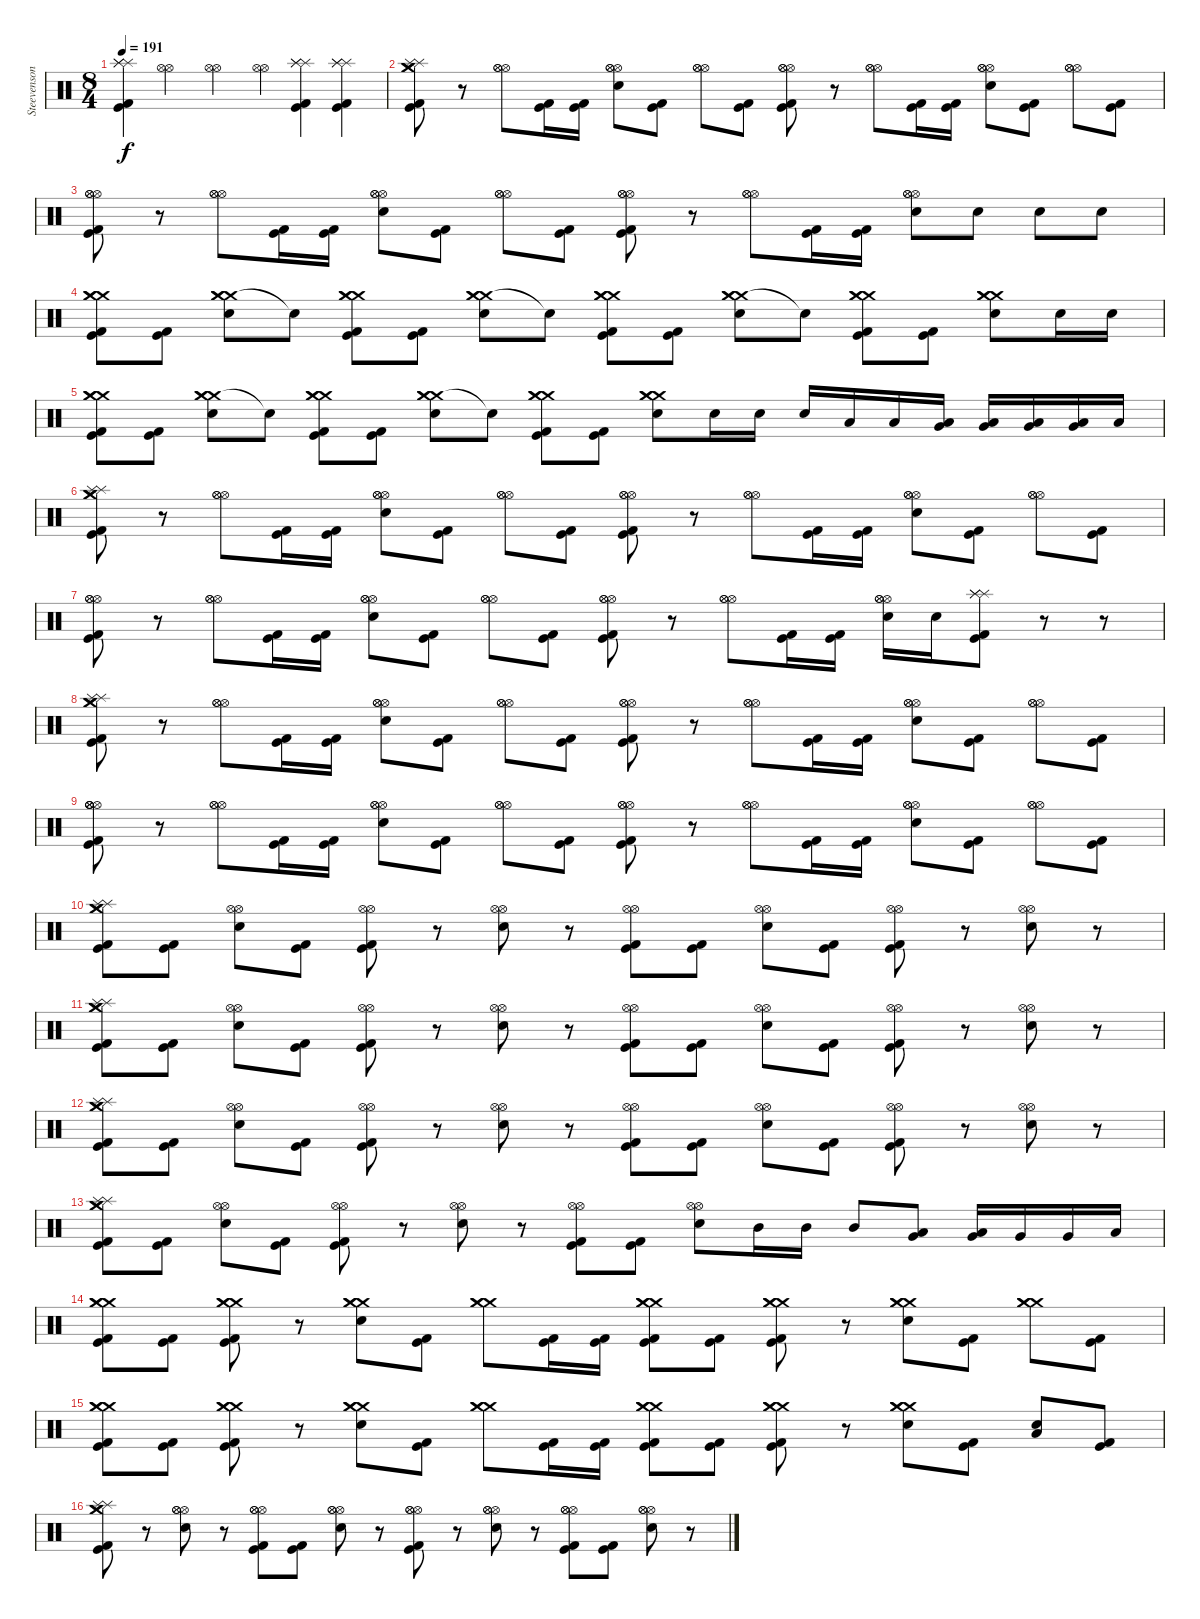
\track ("Steevenson" "Steevenson") {instrument percussion}
\staff {score}
\articulation defaults
\ts (8 4)
\tempo 191
\clef neutral
\ks c
("Splash (hit)" "Splash (hit)" "Splash (hit)" "Kick (hit)" "Kick (hit) 2").4{dy f} ("Hi-Hat (open)" "Hi-Hat (open)").2 ("Hi-Hat (open)" "Hi-Hat (open)").2 ("Hi-Hat (open)" "Hi-Hat (open)").4 ("Splash (hit)" "Splash (hit)" "Splash (hit)" "Kick (hit)" "Kick (hit) 2").4 ("Splash (hit)" "Splash (hit)" "Splash (hit)" "Kick (hit)" "Kick (hit) 2").4 |
("Crash medium (hit)" "Crash medium (hit)" "Splash (hit)" "Splash (hit)" "Kick (hit)" "Kick (hit) 2").8 r.8 ("Hi-Hat (open)" "Hi-Hat (open)" "Hi-Hat (open)").8 ("Kick (hit)" "Kick (hit) 2").16 ("Kick (hit)" "Kick (hit) 2").16 ("Hi-Hat (open)" "Hi-Hat (open)" "Hi-Hat (open)" "Snare (hit) 2").8 ("Kick (hit)" "Kick (hit) 2").8 ("Hi-Hat (open)" "Hi-Hat (open)" "Hi-Hat (open)").8 ("Kick (hit)" "Kick (hit) 2").8 ("Hi-Hat (open)" "Hi-Hat (open)" "Hi-Hat (open)" "Kick (hit)" "Kick (hit) 2").8 r.8 ("Hi-Hat (open)" "Hi-Hat (open)" "Hi-Hat (open)").8 ("Kick (hit)" "Kick (hit) 2").16 ("Kick (hit)" "Kick (hit) 2").16 ("Hi-Hat (open)" "Hi-Hat (open)" "Hi-Hat (open)" "Snare (hit) 2").8 ("Kick (hit)" "Kick (hit) 2").8 ("Hi-Hat (open)" "Hi-Hat (open)" "Hi-Hat (open)").8 ("Kick (hit)" "Kick (hit) 2").8 |
("Hi-Hat (open)" "Hi-Hat (open)" "Hi-Hat (open)" "Kick (hit)" "Kick (hit) 2").8 r.8 ("Hi-Hat (open)" "Hi-Hat (open)" "Hi-Hat (open)").8 ("Kick (hit)" "Kick (hit) 2").16 ("Kick (hit)" "Kick (hit) 2").16 ("Hi-Hat (open)" "Hi-Hat (open)" "Hi-Hat (open)" "Snare (hit) 2").8 ("Kick (hit)" "Kick (hit) 2").8 ("Hi-Hat (open)" "Hi-Hat (open)" "Hi-Hat (open)").8 ("Kick (hit)" "Kick (hit) 2").8 ("Hi-Hat (open)" "Hi-Hat (open)" "Hi-Hat (open)" "Kick (hit)" "Kick (hit) 2").8 r.8 ("Hi-Hat (open)" "Hi-Hat (open)" "Hi-Hat (open)").8 ("Kick (hit)" "Kick (hit) 2").16 ("Kick (hit)" "Kick (hit) 2").16 ("Hi-Hat (open)" "Hi-Hat (open)" "Hi-Hat (open)" "Snare (hit) 2").8 "Snare (hit) 2".8 "Snare (hit) 2".8 "Snare (hit) 2".8 |
("Crash medium (hit)" "Crash medium (hit)" "Crash medium (hit)" "Kick (hit)" "Kick (hit) 2").8 ("Kick (hit)" "Kick (hit) 2").8 ("Crash medium (hit)" "Crash medium (hit)" "Crash medium (hit)" "Snare (hit) 2").8 "Snare (hit)"{t}.8 ("Crash medium (hit)" "Crash medium (hit)" "Crash medium (hit)" "Kick (hit)" "Kick (hit) 2").8 ("Kick (hit)" "Kick (hit) 2").8 ("Crash medium (hit)" "Crash medium (hit)" "Crash medium (hit)" "Snare (hit) 2").8 "Snare (hit)"{t}.8 ("Crash medium (hit)" "Crash medium (hit)" "Crash medium (hit)" "Kick (hit)" "Kick (hit) 2").8 ("Kick (hit)" "Kick (hit) 2").8 ("Crash medium (hit)" "Crash medium (hit)" "Crash medium (hit)" "Snare (hit) 2").8 "Snare (hit)"{t}.8 ("Crash medium (hit)" "Crash medium (hit)" "Crash medium (hit)" "Kick (hit)" "Kick (hit) 2").8 ("Kick (hit)" "Kick (hit) 2").8 ("Crash medium (hit)" "Crash medium (hit)" "Crash medium (hit)" "Snare (hit) 2").8 "Snare (hit) 2".16 "Snare (hit) 2".16 |
("Crash medium (hit)" "Crash medium (hit)" "Crash medium (hit)" "Kick (hit)" "Kick (hit) 2").8 ("Kick (hit)" "Kick (hit) 2").8 ("Crash medium (hit)" "Crash medium (hit)" "Crash medium (hit)" "Snare (hit) 2").8 "Snare (hit)"{t}.8 ("Crash medium (hit)" "Crash medium (hit)" "Crash medium (hit)" "Kick (hit)" "Kick (hit) 2").8 ("Kick (hit)" "Kick (hit) 2").8 ("Crash medium (hit)" "Crash medium (hit)" "Crash medium (hit)" "Snare (hit) 2").8 "Snare (hit)"{t}.8 ("Crash medium (hit)" "Crash medium (hit)" "Crash medium (hit)" "Kick (hit)" "Kick (hit) 2").8 ("Kick (hit)" "Kick (hit) 2").8 ("Crash medium (hit)" "Crash medium (hit)" "Crash medium (hit)" "Snare (hit) 2").8 "Snare (hit) 2".16 "Snare (hit) 2".16 "Snare (hit) 2".16 "Low Tom (hit)".16 "Low Tom (hit)".16 ("Very Low Tom (hit)" "Low Tom (hit)").16 ("Very Low Tom (hit)" "Low Tom (hit)").16 ("Very Low Tom (hit)" "Low Floor Tom (hit)").16 ("Very Low Tom (hit)" "Low Floor Tom (hit)").16 "Low Floor Tom (hit)".16 |
("Crash medium (hit)" "Crash medium (hit)" "Splash (hit)" "Splash (hit)" "Kick (hit)" "Kick (hit) 2").8 r.8 ("Hi-Hat (open)" "Hi-Hat (open)" "Hi-Hat (open)").8 ("Kick (hit)" "Kick (hit) 2").16 ("Kick (hit)" "Kick (hit) 2").16 ("Hi-Hat (open)" "Hi-Hat (open)" "Hi-Hat (open)" "Snare (hit) 2").8 ("Kick (hit)" "Kick (hit) 2").8 ("Hi-Hat (open)" "Hi-Hat (open)" "Hi-Hat (open)").8 ("Kick (hit)" "Kick (hit) 2").8 ("Hi-Hat (open)" "Hi-Hat (open)" "Hi-Hat (open)" "Kick (hit)" "Kick (hit) 2").8 r.8 ("Hi-Hat (open)" "Hi-Hat (open)" "Hi-Hat (open)").8 ("Kick (hit)" "Kick (hit) 2").16 ("Kick (hit)" "Kick (hit) 2").16 ("Hi-Hat (open)" "Hi-Hat (open)" "Hi-Hat (open)" "Snare (hit) 2").8 ("Kick (hit)" "Kick (hit) 2").8 ("Hi-Hat (open)" "Hi-Hat (open)" "Hi-Hat (open)").8 ("Kick (hit)" "Kick (hit) 2").8 |
("Hi-Hat (open)" "Hi-Hat (open)" "Hi-Hat (open)" "Kick (hit)" "Kick (hit) 2").8 r.8 ("Hi-Hat (open)" "Hi-Hat (open)" "Hi-Hat (open)").8 ("Kick (hit)" "Kick (hit) 2").16 ("Kick (hit)" "Kick (hit) 2").16 ("Hi-Hat (open)" "Hi-Hat (open)" "Hi-Hat (open)" "Snare (hit) 2").8 ("Kick (hit)" "Kick (hit) 2").8 ("Hi-Hat (open)" "Hi-Hat (open)" "Hi-Hat (open)").8 ("Kick (hit)" "Kick (hit) 2").8 ("Hi-Hat (open)" "Hi-Hat (open)" "Hi-Hat (open)" "Kick (hit)" "Kick (hit) 2").8 r.8 ("Hi-Hat (open)" "Hi-Hat (open)" "Hi-Hat (open)").8 ("Kick (hit)" "Kick (hit) 2").16 ("Kick (hit)" "Kick (hit) 2").16 ("Hi-Hat (open)" "Hi-Hat (open)" "Hi-Hat (open)" "Snare (hit) 2").16 "Snare (hit) 2".16 ("Splash (hit)" "Splash (hit)" "Splash (hit)" "Kick (hit)" "Kick (hit) 2").8 r.8 r.8 |
("Crash medium (hit)" "Crash medium (hit)" "Splash (hit)" "Splash (hit)" "Kick (hit)" "Kick (hit) 2").8 r.8 ("Hi-Hat (open)" "Hi-Hat (open)" "Hi-Hat (open)").8 ("Kick (hit)" "Kick (hit) 2").16 ("Kick (hit)" "Kick (hit) 2").16 ("Hi-Hat (open)" "Hi-Hat (open)" "Hi-Hat (open)" "Snare (hit) 2").8 ("Kick (hit)" "Kick (hit) 2").8 ("Hi-Hat (open)" "Hi-Hat (open)" "Hi-Hat (open)").8 ("Kick (hit)" "Kick (hit) 2").8 ("Hi-Hat (open)" "Hi-Hat (open)" "Hi-Hat (open)" "Kick (hit)" "Kick (hit) 2").8 r.8 ("Hi-Hat (open)" "Hi-Hat (open)" "Hi-Hat (open)").8 ("Kick (hit)" "Kick (hit) 2").16 ("Kick (hit)" "Kick (hit) 2").16 ("Hi-Hat (open)" "Hi-Hat (open)" "Hi-Hat (open)" "Snare (hit) 2").8 ("Kick (hit)" "Kick (hit) 2").8 ("Hi-Hat (open)" "Hi-Hat (open)" "Hi-Hat (open)").8 ("Kick (hit)" "Kick (hit) 2").8 |
("Hi-Hat (open)" "Hi-Hat (open)" "Hi-Hat (open)" "Hi-Hat (open)" "Kick (hit)" "Kick (hit) 2").8 r.8 ("Hi-Hat (open)" "Hi-Hat (open)" "Hi-Hat (open)").8 ("Kick (hit)" "Kick (hit) 2").16 ("Kick (hit)" "Kick (hit) 2").16 ("Hi-Hat (open)" "Hi-Hat (open)" "Hi-Hat (open)" "Snare (hit) 2").8 ("Kick (hit)" "Kick (hit) 2").8 ("Hi-Hat (open)" "Hi-Hat (open)" "Hi-Hat (open)").8 ("Kick (hit)" "Kick (hit) 2").8 ("Hi-Hat (open)" "Hi-Hat (open)" "Hi-Hat (open)" "Kick (hit)" "Kick (hit) 2").8 r.8 ("Hi-Hat (open)" "Hi-Hat (open)" "Hi-Hat (open)").8 ("Kick (hit)" "Kick (hit) 2").16 ("Kick (hit)" "Kick (hit) 2").16 ("Hi-Hat (open)" "Hi-Hat (open)" "Hi-Hat (open)" "Snare (hit) 2").8 ("Kick (hit)" "Kick (hit) 2").8 ("Hi-Hat (open)" "Hi-Hat (open)" "Hi-Hat (open)").8 ("Kick (hit)" "Kick (hit) 2").8 |
("Crash medium (hit)" "Crash medium (hit)" "Splash (hit)" "Splash (hit)" "Kick (hit)" "Kick (hit) 2").8 ("Kick (hit)" "Kick (hit) 2").8 ("Hi-Hat (open)" "Hi-Hat (open)" "Snare (hit) 2").8 ("Kick (hit)" "Kick (hit) 2").8 ("Hi-Hat (open)" "Hi-Hat (open)" "Kick (hit)" "Kick (hit) 2").8 r.8 ("Hi-Hat (open)" "Hi-Hat (open)" "Snare (hit) 2").8 r.8 ("Hi-Hat (open)" "Hi-Hat (open)" "Kick (hit)" "Kick (hit) 2").8 ("Kick (hit)" "Kick (hit) 2").8 ("Hi-Hat (open)" "Hi-Hat (open)" "Snare (hit) 2").8 ("Kick (hit)" "Kick (hit) 2").8 ("Hi-Hat (open)" "Hi-Hat (open)" "Kick (hit)" "Kick (hit) 2").8 r.8 ("Hi-Hat (open)" "Hi-Hat (open)" "Snare (hit) 2").8 r.8 |
("Crash medium (hit)" "Crash medium (hit)" "Splash (hit)" "Splash (hit)" "Kick (hit)" "Kick (hit) 2").8 ("Kick (hit)" "Kick (hit) 2").8 ("Hi-Hat (open)" "Hi-Hat (open)" "Snare (hit) 2").8 ("Kick (hit)" "Kick (hit) 2").8 ("Hi-Hat (open)" "Hi-Hat (open)" "Kick (hit)" "Kick (hit) 2").8 r.8 ("Hi-Hat (open)" "Hi-Hat (open)" "Snare (hit) 2").8 r.8 ("Hi-Hat (open)" "Hi-Hat (open)" "Kick (hit)" "Kick (hit) 2").8 ("Kick (hit)" "Kick (hit) 2").8 ("Hi-Hat (open)" "Hi-Hat (open)" "Snare (hit) 2").8 ("Kick (hit)" "Kick (hit) 2").8 ("Hi-Hat (open)" "Hi-Hat (open)" "Kick (hit)" "Kick (hit) 2").8 r.8 ("Hi-Hat (open)" "Hi-Hat (open)" "Snare (hit) 2").8 r.8 |
("Crash medium (hit)" "Crash medium (hit)" "Splash (hit)" "Splash (hit)" "Kick (hit)" "Kick (hit) 2").8 ("Kick (hit)" "Kick (hit) 2").8 ("Hi-Hat (open)" "Hi-Hat (open)" "Snare (hit) 2").8 ("Kick (hit)" "Kick (hit) 2").8 ("Hi-Hat (open)" "Hi-Hat (open)" "Kick (hit)" "Kick (hit) 2").8 r.8 ("Hi-Hat (open)" "Hi-Hat (open)" "Snare (hit) 2").8 r.8 ("Hi-Hat (open)" "Hi-Hat (open)" "Kick (hit)" "Kick (hit) 2").8 ("Kick (hit)" "Kick (hit) 2").8 ("Hi-Hat (open)" "Hi-Hat (open)" "Snare (hit) 2").8 ("Kick (hit)" "Kick (hit) 2").8 ("Hi-Hat (open)" "Hi-Hat (open)" "Kick (hit)" "Kick (hit) 2").8 r.8 ("Hi-Hat (open)" "Hi-Hat (open)" "Snare (hit) 2").8 r.8 |
("Crash medium (hit)" "Crash medium (hit)" "Splash (hit)" "Splash (hit)" "Kick (hit)" "Kick (hit) 2").8 ("Kick (hit)" "Kick (hit) 2").8 ("Hi-Hat (open)" "Hi-Hat (open)" "Snare (hit) 2").8 ("Kick (hit)" "Kick (hit) 2").8 ("Hi-Hat (open)" "Hi-Hat (open)" "Kick (hit)" "Kick (hit) 2").8 r.8 ("Hi-Hat (open)" "Hi-Hat (open)" "Snare (hit) 2").8 r.8 ("Hi-Hat (open)" "Hi-Hat (open)" "Kick (hit)" "Kick (hit) 2").8 ("Kick (hit)" "Kick (hit) 2").8 ("Hi-Hat (open)" "Hi-Hat (open)" "Snare (hit) 2").8 "Mid Tom (hit)".16 "Mid Tom (hit)".16 "Mid Tom (hit)".8 ("Low Tom (hit)" "Very Low Tom (hit)").8 ("Very Low Tom (hit)" "Low Tom (hit)").16 "Very Low Tom (hit)".16 "Very Low Tom (hit)".16 "Low Floor Tom (hit)".16 |
("Crash medium (hit)" "Crash medium (hit)" "Crash medium (hit)" "Kick (hit)" "Kick (hit) 2").8 ("Kick (hit)" "Kick (hit) 2").8 ("Crash medium (hit)" "Crash medium (hit)" "Crash medium (hit)" "Kick (hit)" "Kick (hit) 2").8 r.8 ("Crash medium (hit)" "Crash medium (hit)" "Crash medium (hit)" "Snare (hit) 2").8 ("Kick (hit)" "Kick (hit) 2").8 ("Crash medium (hit)" "Crash medium (hit)" "Crash medium (hit)").8 ("Kick (hit)" "Kick (hit) 2").16 ("Kick (hit)" "Kick (hit) 2").16 ("Crash medium (hit)" "Crash medium (hit)" "Crash medium (hit)" "Kick (hit)" "Kick (hit) 2").8 ("Kick (hit)" "Kick (hit) 2").8 ("Crash medium (hit)" "Crash medium (hit)" "Crash medium (hit)" "Kick (hit)" "Kick (hit) 2").8 r.8 ("Crash medium (hit)" "Crash medium (hit)" "Crash medium (hit)" "Snare (hit) 2").8 ("Kick (hit)" "Kick (hit) 2").8 ("Crash medium (hit)" "Crash medium (hit)" "Crash medium (hit)").8 ("Kick (hit)" "Kick (hit) 2").8 |
("Crash medium (hit)" "Crash medium (hit)" "Crash medium (hit)" "Kick (hit)" "Kick (hit) 2").8 ("Kick (hit)" "Kick (hit) 2").8 ("Crash medium (hit)" "Crash medium (hit)" "Crash medium (hit)" "Kick (hit)" "Kick (hit) 2").8 r.8 ("Crash medium (hit)" "Crash medium (hit)" "Crash medium (hit)" "Snare (hit) 2").8 ("Kick (hit)" "Kick (hit) 2").8 ("Crash medium (hit)" "Crash medium (hit)" "Crash medium (hit)").8 ("Kick (hit)" "Kick (hit) 2").16 ("Kick (hit)" "Kick (hit) 2").16 ("Crash medium (hit)" "Crash medium (hit)" "Crash medium (hit)" "Kick (hit)" "Kick (hit) 2").8 ("Kick (hit)" "Kick (hit) 2").8 ("Crash medium (hit)" "Crash medium (hit)" "Crash medium (hit)" "Kick (hit)" "Kick (hit) 2").8 r.8 ("Crash medium (hit)" "Crash medium (hit)" "Crash medium (hit)" "Snare (hit) 2").8 ("Kick (hit)" "Kick (hit) 2").8 ("Low Tom (hit)" "Snare (hit) 2").8 ("Kick (hit)" "Kick (hit) 2").8 |
("Splash (hit)" "Crash medium (hit)" "Crash medium (hit)" "Splash (hit)" "Kick (hit)" "Kick (hit) 2").8 r.8 ("Hi-Hat (open)" "Hi-Hat (open)" "Hi-Hat (open)" "Snare (hit) 2").8 r.8 ("Hi-Hat (open)" "Hi-Hat (open)" "Hi-Hat (open)" "Kick (hit)" "Kick (hit) 2").8 ("Kick (hit)" "Kick (hit) 2").8 ("Hi-Hat (open)" "Hi-Hat (open)" "Hi-Hat (open)" "Snare (hit) 2").8 r.8 ("Hi-Hat (open)" "Hi-Hat (open)" "Hi-Hat (open)" "Kick (hit)" "Kick (hit) 2").8 r.8 ("Hi-Hat (open)" "Hi-Hat (open)" "Hi-Hat (open)" "Snare (hit) 2").8 r.8 ("Hi-Hat (open)" "Hi-Hat (open)" "Hi-Hat (open)" "Kick (hit)" "Kick (hit) 2").8 ("Kick (hit)" "Kick (hit) 2").8 ("Hi-Hat (open)" "Hi-Hat (open)" "Hi-Hat (open)" "Snare (hit) 2").8 r.8
